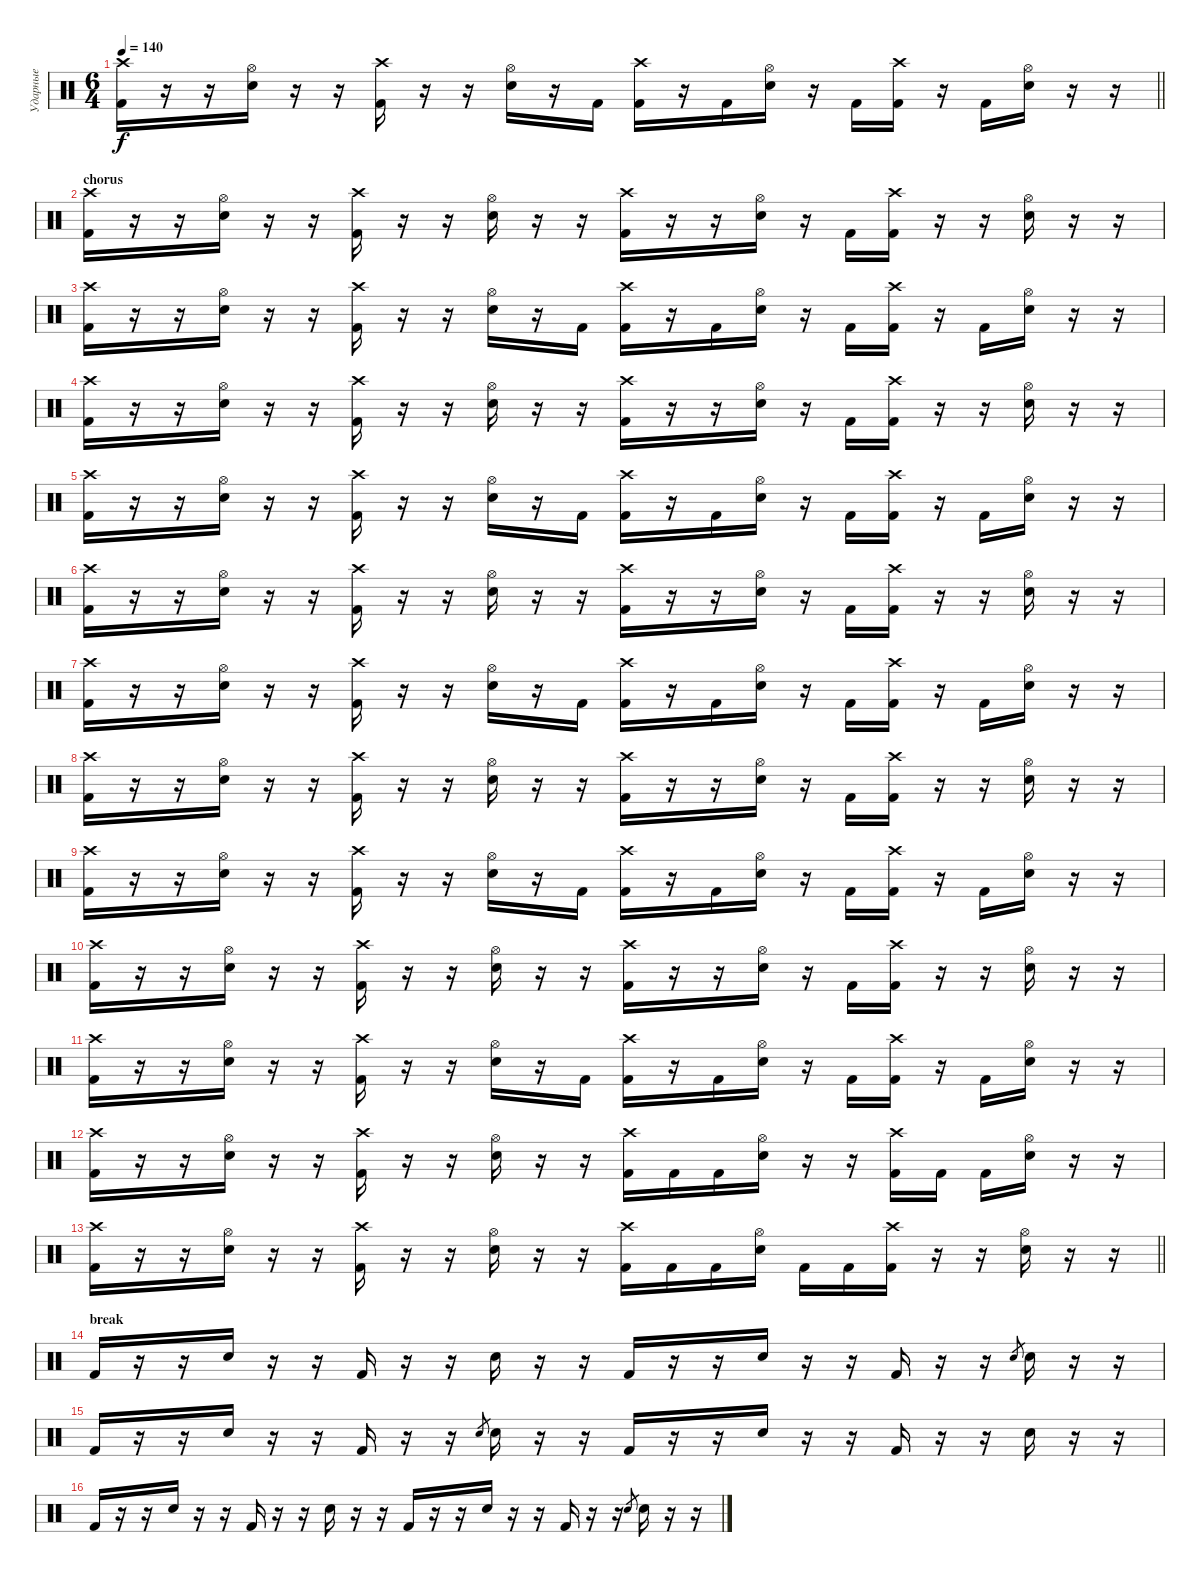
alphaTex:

\track ("Ударные" "Ударные") {instrument percussion}
\staff {score}
\articulation defaults
\ts (6 4)
\tempo 140
\clef neutral
\barLineRight lightlight
\ks c
("Crash high (hit)" "Kick (hit) 2").16{dy f} r.16 r.16 ("Hi-Hat (open)" "Snare (hit) 2").16 r.16 r.16 ("Crash high (hit)" "Kick (hit) 2").16 r.16 r.16 ("Hi-Hat (open)" "Snare (hit) 2").16 r.16 "Kick (hit) 2".16 ("Crash high (hit)" "Kick (hit) 2").16 r.16 "Kick (hit) 2".16 ("Hi-Hat (open)" "Snare (hit) 2").16 r.16 "Kick (hit) 2".16 ("Crash high (hit)" "Kick (hit) 2").16 r.16 "Kick (hit) 2".16 ("Hi-Hat (open)" "Snare (hit) 2").16 r.16 r.16 |
\section ("" "chorus")
("Crash high (hit)" "Kick (hit) 2").16 r.16 r.16 ("Hi-Hat (open)" "Snare (hit) 2").16 r.16 r.16 ("Crash high (hit)" "Kick (hit) 2").16 r.16 r.16 ("Hi-Hat (open)" "Snare (hit) 2").16 r.16 r.16 ("Crash high (hit)" "Kick (hit) 2").16 r.16 r.16 ("Hi-Hat (open)" "Snare (hit) 2").16 r.16 "Kick (hit) 2".16 ("Crash high (hit)" "Kick (hit) 2").16 r.16 r.16 ("Hi-Hat (open)" "Snare (hit) 2").16 r.16 r.16 |
("Crash high (hit)" "Kick (hit) 2").16 r.16 r.16 ("Hi-Hat (open)" "Snare (hit) 2").16 r.16 r.16 ("Crash high (hit)" "Kick (hit) 2").16 r.16 r.16 ("Hi-Hat (open)" "Snare (hit) 2").16 r.16 "Kick (hit) 2".16 ("Crash high (hit)" "Kick (hit) 2").16 r.16 "Kick (hit) 2".16 ("Hi-Hat (open)" "Snare (hit) 2").16 r.16 "Kick (hit) 2".16 ("Crash high (hit)" "Kick (hit) 2").16 r.16 "Kick (hit) 2".16 ("Hi-Hat (open)" "Snare (hit) 2").16 r.16 r.16 |
("Crash high (hit)" "Kick (hit) 2").16 r.16 r.16 ("Hi-Hat (open)" "Snare (hit) 2").16 r.16 r.16 ("Crash high (hit)" "Kick (hit) 2").16 r.16 r.16 ("Hi-Hat (open)" "Snare (hit) 2").16 r.16 r.16 ("Crash high (hit)" "Kick (hit) 2").16 r.16 r.16 ("Hi-Hat (open)" "Snare (hit) 2").16 r.16 "Kick (hit) 2".16 ("Crash high (hit)" "Kick (hit) 2").16 r.16 r.16 ("Hi-Hat (open)" "Snare (hit) 2").16 r.16 r.16 |
("Crash high (hit)" "Kick (hit) 2").16 r.16 r.16 ("Hi-Hat (open)" "Snare (hit) 2").16 r.16 r.16 ("Crash high (hit)" "Kick (hit) 2").16 r.16 r.16 ("Hi-Hat (open)" "Snare (hit) 2").16 r.16 "Kick (hit) 2".16 ("Crash high (hit)" "Kick (hit) 2").16 r.16 "Kick (hit) 2".16 ("Hi-Hat (open)" "Snare (hit) 2").16 r.16 "Kick (hit) 2".16 ("Crash high (hit)" "Kick (hit) 2").16 r.16 "Kick (hit) 2".16 ("Hi-Hat (open)" "Snare (hit) 2").16 r.16 r.16 |
("Crash high (hit)" "Kick (hit) 2").16 r.16 r.16 ("Hi-Hat (open)" "Snare (hit) 2").16 r.16 r.16 ("Crash high (hit)" "Kick (hit) 2").16 r.16 r.16 ("Hi-Hat (open)" "Snare (hit) 2").16 r.16 r.16 ("Crash high (hit)" "Kick (hit) 2").16 r.16 r.16 ("Hi-Hat (open)" "Snare (hit) 2").16 r.16 "Kick (hit) 2".16 ("Crash high (hit)" "Kick (hit) 2").16 r.16 r.16 ("Hi-Hat (open)" "Snare (hit) 2").16 r.16 r.16 |
("Crash high (hit)" "Kick (hit) 2").16 r.16 r.16 ("Hi-Hat (open)" "Snare (hit) 2").16 r.16 r.16 ("Crash high (hit)" "Kick (hit) 2").16 r.16 r.16 ("Hi-Hat (open)" "Snare (hit) 2").16 r.16 "Kick (hit) 2".16 ("Crash high (hit)" "Kick (hit) 2").16 r.16 "Kick (hit) 2".16 ("Hi-Hat (open)" "Snare (hit) 2").16 r.16 "Kick (hit) 2".16 ("Crash high (hit)" "Kick (hit) 2").16 r.16 "Kick (hit) 2".16 ("Hi-Hat (open)" "Snare (hit) 2").16 r.16 r.16 |
("Crash high (hit)" "Kick (hit) 2").16 r.16 r.16 ("Hi-Hat (open)" "Snare (hit) 2").16 r.16 r.16 ("Crash high (hit)" "Kick (hit) 2").16 r.16 r.16 ("Hi-Hat (open)" "Snare (hit) 2").16 r.16 r.16 ("Crash high (hit)" "Kick (hit) 2").16 r.16 r.16 ("Hi-Hat (open)" "Snare (hit) 2").16 r.16 "Kick (hit) 2".16 ("Crash high (hit)" "Kick (hit) 2").16 r.16 r.16 ("Hi-Hat (open)" "Snare (hit) 2").16 r.16 r.16 |
("Crash high (hit)" "Kick (hit) 2").16 r.16 r.16 ("Hi-Hat (open)" "Snare (hit) 2").16 r.16 r.16 ("Crash high (hit)" "Kick (hit) 2").16 r.16 r.16 ("Hi-Hat (open)" "Snare (hit) 2").16 r.16 "Kick (hit) 2".16 ("Crash high (hit)" "Kick (hit) 2").16 r.16 "Kick (hit) 2".16 ("Hi-Hat (open)" "Snare (hit) 2").16 r.16 "Kick (hit) 2".16 ("Crash high (hit)" "Kick (hit) 2").16 r.16 "Kick (hit) 2".16 ("Hi-Hat (open)" "Snare (hit) 2").16 r.16 r.16 |
("Crash high (hit)" "Kick (hit) 2").16 r.16 r.16 ("Hi-Hat (open)" "Snare (hit) 2").16 r.16 r.16 ("Crash high (hit)" "Kick (hit) 2").16 r.16 r.16 ("Hi-Hat (open)" "Snare (hit) 2").16 r.16 r.16 ("Crash high (hit)" "Kick (hit) 2").16 r.16 r.16 ("Hi-Hat (open)" "Snare (hit) 2").16 r.16 "Kick (hit) 2".16 ("Crash high (hit)" "Kick (hit) 2").16 r.16 r.16 ("Hi-Hat (open)" "Snare (hit) 2").16 r.16 r.16 |
("Crash high (hit)" "Kick (hit) 2").16 r.16 r.16 ("Hi-Hat (open)" "Snare (hit) 2").16 r.16 r.16 ("Crash high (hit)" "Kick (hit) 2").16 r.16 r.16 ("Hi-Hat (open)" "Snare (hit) 2").16 r.16 "Kick (hit) 2".16 ("Crash high (hit)" "Kick (hit) 2").16 r.16 "Kick (hit) 2".16 ("Hi-Hat (open)" "Snare (hit) 2").16 r.16 "Kick (hit) 2".16 ("Crash high (hit)" "Kick (hit) 2").16 r.16 "Kick (hit) 2".16 ("Hi-Hat (open)" "Snare (hit) 2").16 r.16 r.16 |
("Crash high (hit)" "Kick (hit) 2").16 r.16 r.16 ("Hi-Hat (open)" "Snare (hit) 2").16 r.16 r.16 ("Crash high (hit)" "Kick (hit) 2").16 r.16 r.16 ("Hi-Hat (open)" "Snare (hit) 2").16 r.16 r.16 ("Crash high (hit)" "Kick (hit) 2").16 "Kick (hit) 2".16 "Kick (hit) 2".16 ("Hi-Hat (open)" "Snare (hit) 2").16 r.16 r.16 ("Crash high (hit)" "Kick (hit) 2").16 "Kick (hit) 2".16 "Kick (hit) 2".16 ("Hi-Hat (open)" "Snare (hit) 2").16 r.16 r.16 |
\barLineRight lightlight
("Crash high (hit)" "Kick (hit) 2").16 r.16 r.16 ("Hi-Hat (open)" "Snare (hit) 2").16 r.16 r.16 ("Crash high (hit)" "Kick (hit) 2").16 r.16 r.16 ("Hi-Hat (open)" "Snare (hit) 2").16 r.16 r.16 ("Crash high (hit)" "Kick (hit) 2").16 "Kick (hit) 2".16 "Kick (hit) 2".16 ("Hi-Hat (open)" "Snare (hit) 2").16 "Kick (hit) 2".16 "Kick (hit) 2".16 ("Crash high (hit)" "Kick (hit) 2").16 r.16 r.16 ("Hi-Hat (open)" "Snare (hit) 2").16 r.16 r.16 |
\section ("" "break")
"Kick (hit) 2".16 r.16 r.16 "Snare (hit) 2".16 r.16 r.16 "Kick (hit) 2".16 r.16 r.16 "Snare (hit) 2".16 r.16 r.16 "Kick (hit) 2".16 r.16 r.16 "Snare (hit) 2".16 r.16 r.16 "Kick (hit) 2".16 r.16 r.16 "Snare (hit) 2".8{gr} "Snare (hit) 2".16 r.16 r.16 |
"Kick (hit) 2".16 r.16 r.16 "Snare (hit) 2".16 r.16 r.16 "Kick (hit) 2".16 r.16 r.16 "Snare (hit) 2".8{gr} "Snare (hit) 2".16 r.16 r.16 "Kick (hit) 2".16 r.16 r.16 "Snare (hit) 2".16 r.16 r.16 "Kick (hit) 2".16 r.16 r.16 "Snare (hit) 2".16 r.16 r.16 |
"Kick (hit) 2".16 r.16 r.16 "Snare (hit) 2".16 r.16 r.16 "Kick (hit) 2".16 r.16 r.16 "Snare (hit) 2".16 r.16 r.16 "Kick (hit) 2".16 r.16 r.16 "Snare (hit) 2".16 r.16 r.16 "Kick (hit) 2".16 r.16 r.16 "Snare (hit) 2".8{gr} "Snare (hit) 2".16 r.16 r.16
